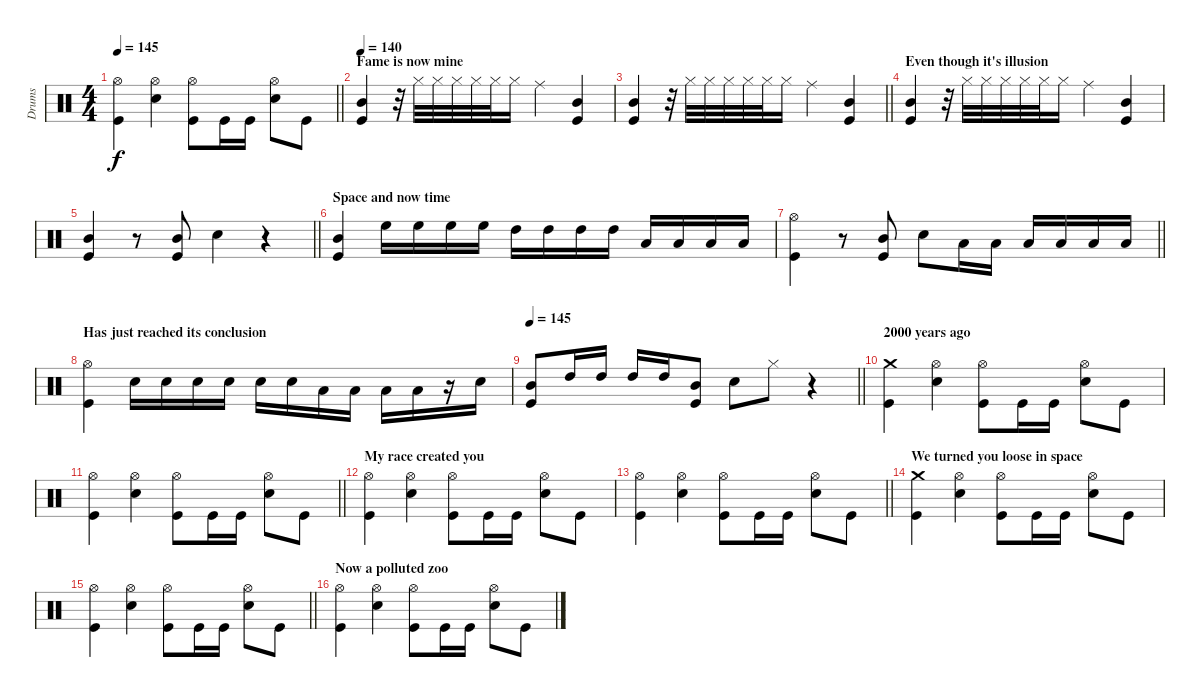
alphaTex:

\track ("Drums" "Drums") {instrument percussion}
\staff {score}
\articulation defaults
\ts (4 4)
\tempo 145
\clef neutral
\barLineRight lightlight
\ks c
("Hi-Hat (open)" "Kick (hit)").4{dy f} ("Hi-Hat (open)" "Snare (hit) 2").4 ("Hi-Hat (open)" "Kick (hit)").8 "Kick (hit)".16 "Kick (hit)".16 ("Hi-Hat (open)" "Snare (hit) 2").8 "Kick (hit)".8 |
\section ("" "Fame is now mine")
\tempo 140
("Mid Tom (hit)" "Kick (hit)").4 r.32 "Hi-Hat (closed)".32 "Hi-Hat (closed)".32 "Hi-Hat (closed)".32 "Hi-Hat (closed)".32 "Hi-Hat (closed)".32 "Hi-Hat (closed)".16 "Ride (middle)".4 ("Mid Tom (hit)" "Kick (hit)").4 |
\barLineRight lightlight
("Mid Tom (hit)" "Kick (hit)").4 r.32 "Hi-Hat (closed)".32 "Hi-Hat (closed)".32 "Hi-Hat (closed)".32 "Hi-Hat (closed)".32 "Hi-Hat (closed)".32 "Hi-Hat (closed)".16 "Ride (middle)".4 ("Mid Tom (hit)" "Kick (hit)").4 |
\section ("" "Even though it's illusion")
("Mid Tom (hit)" "Kick (hit)").4 r.32 "Hi-Hat (closed)".32 "Hi-Hat (closed)".32 "Hi-Hat (closed)".32 "Hi-Hat (closed)".32 "Hi-Hat (closed)".32 "Hi-Hat (closed)".16 "Ride (middle)".4 ("Mid Tom (hit)" "Kick (hit)").4 |
\barLineRight lightlight
("Mid Tom (hit)" "Kick (hit)").4 r.8 ("Mid Tom (hit)" "Kick (hit)").8 "Snare (hit) 2".4 r.4 |
\section ("" "Space and now time")
("Mid Tom (hit)" "Kick (hit)").4 "High Floor Tom (hit)".16 "High Floor Tom (hit)".16 "High Floor Tom (hit)".16 "High Floor Tom (hit)".16 "High Tom (hit)".16 "High Tom (hit)".16 "High Tom (hit)".16 "High Tom (hit)".16 "Low Tom (hit)".16 "Low Tom (hit)".16 "Low Tom (hit)".16 "Low Tom (hit)".16 |
\barLineRight lightlight
("Hi-Hat (open)" "Kick (hit)").4 r.8 ("Mid Tom (hit)" "Kick (hit)").8 "Snare (hit) 2".8 "Low Tom (hit)".16 "Low Tom (hit)".16 "Low Tom (hit)".16 "Low Tom (hit)".16 "Low Tom (hit)".16 "Low Tom (hit)".16 |
\section ("" "Has just reached its conclusion")
("Hi-Hat (open)" "Kick (hit)").4 "Snare (hit) 2".16 "Snare (hit) 2".16 "Snare (hit) 2".16 "Snare (hit) 2".16 "Snare (hit) 2".16 "Snare (hit) 2".16 "Low Tom (hit)".16 "Low Tom (hit)".16 "Low Tom (hit)".16 "Low Tom (hit)".16 r.16 "Snare (hit) 2".16 |
\tempo 145
\barLineRight lightlight
("Mid Tom (hit)" "Kick (hit)").8 "High Tom (hit)".16 "High Tom (hit)".16 "High Tom (hit)".16 "High Tom (hit)".16 ("Mid Tom (hit)" "Kick (hit)").8 "Snare (hit) 2".8 "Hi-Hat (closed)".8 r.4 |
\section ("" "2000 years ago")
("Crash medium (hit)" "Kick (hit)").4 ("Hi-Hat (open)" "Snare (hit) 2").4 ("Hi-Hat (open)" "Kick (hit)").8 "Kick (hit)".16 "Kick (hit)".16 ("Hi-Hat (open)" "Snare (hit) 2").8 "Kick (hit)".8 |
\barLineRight lightlight
("Hi-Hat (open)" "Kick (hit)").4 ("Hi-Hat (open)" "Snare (hit) 2").4 ("Hi-Hat (open)" "Kick (hit)").8 "Kick (hit)".16 "Kick (hit)".16 ("Hi-Hat (open)" "Snare (hit) 2").8 "Kick (hit)".8 |
\section ("" "My race created you")
("Hi-Hat (open)" "Kick (hit)").4 ("Hi-Hat (open)" "Snare (hit) 2").4 ("Hi-Hat (open)" "Kick (hit)").8 "Kick (hit)".16 "Kick (hit)".16 ("Hi-Hat (open)" "Snare (hit) 2").8 "Kick (hit)".8 |
\barLineRight lightlight
("Hi-Hat (open)" "Kick (hit)").4 ("Hi-Hat (open)" "Snare (hit) 2").4 ("Hi-Hat (open)" "Kick (hit)").8 "Kick (hit)".16 "Kick (hit)".16 ("Hi-Hat (open)" "Snare (hit) 2").8 "Kick (hit)".8 |
\section ("" "We turned you loose in space")
("Crash medium (hit)" "Kick (hit)").4 ("Hi-Hat (open)" "Snare (hit) 2").4 ("Hi-Hat (open)" "Kick (hit)").8 "Kick (hit)".16 "Kick (hit)".16 ("Hi-Hat (open)" "Snare (hit) 2").8 "Kick (hit)".8 |
\barLineRight lightlight
("Hi-Hat (open)" "Kick (hit)").4 ("Hi-Hat (open)" "Snare (hit) 2").4 ("Hi-Hat (open)" "Kick (hit)").8 "Kick (hit)".16 "Kick (hit)".16 ("Hi-Hat (open)" "Snare (hit) 2").8 "Kick (hit)".8 |
\section ("" "Now a polluted zoo")
("Hi-Hat (open)" "Kick (hit)").4 ("Hi-Hat (open)" "Snare (hit) 2").4 ("Hi-Hat (open)" "Kick (hit)").8 "Kick (hit)".16 "Kick (hit)".16 ("Hi-Hat (open)" "Snare (hit) 2").8 "Kick (hit)".8
